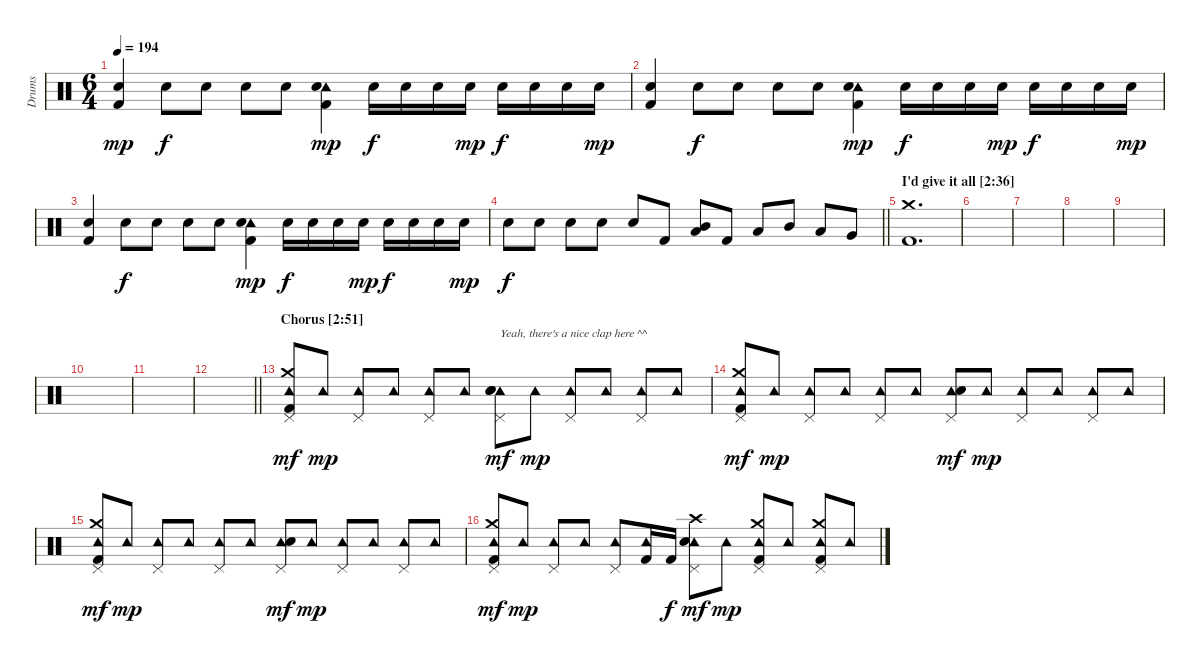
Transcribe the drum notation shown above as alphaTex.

\track ("Drums" "Drums") {instrument percussion}
\staff {score}
\articulation defaults
\ts (6 4)
\tempo 194
\clef neutral
\ks c
("Electric Snare (hit)" "Kick (hit) 2").4{dy mp} "Electric Snare (hit)".8{dy f} "Electric Snare (hit)".8 "Electric Snare (hit)".8 "Electric Snare (hit)".8 ("Tambourine (hit)" "Electric Snare (hit)" "Kick (hit) 2").4{dy mp} "Electric Snare (hit)".16{dy f} "Electric Snare (hit)".16 "Electric Snare (hit)".16 "Electric Snare (hit)".16{dy mp} "Electric Snare (hit)".16{dy f} "Electric Snare (hit)".16 "Electric Snare (hit)".16 "Electric Snare (hit)".16{dy mp} |
("Electric Snare (hit)" "Kick (hit) 2").4 "Electric Snare (hit)".8{dy f} "Electric Snare (hit)".8 "Electric Snare (hit)".8 "Electric Snare (hit)".8 ("Tambourine (hit)" "Electric Snare (hit)" "Kick (hit) 2").4{dy mp} "Electric Snare (hit)".16{dy f} "Electric Snare (hit)".16 "Electric Snare (hit)".16 "Electric Snare (hit)".16{dy mp} "Electric Snare (hit)".16{dy f} "Electric Snare (hit)".16 "Electric Snare (hit)".16 "Electric Snare (hit)".16{dy mp} |
("Electric Snare (hit)" "Kick (hit) 2").4 "Electric Snare (hit)".8{dy f} "Electric Snare (hit)".8 "Electric Snare (hit)".8 "Electric Snare (hit)".8 ("Tambourine (hit)" "Electric Snare (hit)" "Kick (hit) 2").4{dy mp} "Electric Snare (hit)".16{dy f} "Electric Snare (hit)".16 "Electric Snare (hit)".16 "Electric Snare (hit)".16{dy mp} "Electric Snare (hit)".16{dy f} "Electric Snare (hit)".16 "Electric Snare (hit)".16 "Electric Snare (hit)".16{dy mp} |
\barLineRight lightlight "Snare (hit) 2".8{dy f} "Snare (hit) 2".8 "Snare (hit) 2".8 "Snare (hit) 2".8 "Snare (hit) 2".8 "Kick (hit) 2".8
("Mid Tom (hit)" "Low Tom (hit)").8 "Kick (hit) 2".8 "Low Tom (hit)".8 "Mid Tom (hit)".8 "Low Tom (hit)".8 "Very Low Tom (hit)".8 |
\section ("" "I'd give it all [2:36]")
("Crash medium (hit)" "Kick (hit) 2").1{d} |
|
|
|
|
|
|
\barLineRight lightlight
|
\section ("" "Chorus [2:51]")
("Crash medium (hit)" "Tambourine (hit)" "Pedal Hi-Hat (hit)" "Kick (hit) 2").8{dy mf} "Tambourine (hit)".8{dy mp} ("Tambourine (hit)" "Pedal Hi-Hat (hit)").8 "Tambourine (hit)".8 ("Tambourine (hit)" "Pedal Hi-Hat (hit)").8 "Tambourine (hit)".8 ("Tambourine (hit)" "Pedal Hi-Hat (hit)" "Hand Clap (hit)" "Electric Snare (hit)").8{txt "Yeah, there's a nice clap here ^^" dy mf} "Tambourine (hit)".8{dy mp} ("Tambourine (hit)" "Pedal Hi-Hat (hit)").8 "Tambourine (hit)".8 ("Tambourine (hit)" "Pedal Hi-Hat (hit)").8 "Tambourine (hit)".8 |
("Crash medium (hit)" "Tambourine (hit)" "Pedal Hi-Hat (hit)" "Kick (hit) 2").8{dy mf} "Tambourine (hit)".8{dy mp} ("Tambourine (hit)" "Pedal Hi-Hat (hit)").8 "Tambourine (hit)".8 ("Tambourine (hit)" "Pedal Hi-Hat (hit)").8 "Tambourine (hit)".8 ("Tambourine (hit)" "Pedal Hi-Hat (hit)" "Electric Snare (hit)").8{dy mf} "Tambourine (hit)".8{dy mp} ("Tambourine (hit)" "Pedal Hi-Hat (hit)").8 "Tambourine (hit)".8 ("Tambourine (hit)" "Pedal Hi-Hat (hit)").8 "Tambourine (hit)".8 |
("Crash medium (hit)" "Tambourine (hit)" "Pedal Hi-Hat (hit)" "Kick (hit) 2").8{dy mf} "Tambourine (hit)".8{dy mp} ("Tambourine (hit)" "Pedal Hi-Hat (hit)").8 "Tambourine (hit)".8 ("Tambourine (hit)" "Pedal Hi-Hat (hit)").8 "Tambourine (hit)".8 ("Tambourine (hit)" "Pedal Hi-Hat (hit)" "Electric Snare (hit)").8{dy mf} "Tambourine (hit)".8{dy mp} ("Tambourine (hit)" "Pedal Hi-Hat (hit)").8 "Tambourine (hit)".8 ("Tambourine (hit)" "Pedal Hi-Hat (hit)").8 "Tambourine (hit)".8 |
("Crash medium (hit)" "Tambourine (hit)" "Pedal Hi-Hat (hit)" "Kick (hit) 2").8{dy mf} "Tambourine (hit)".8{dy mp} ("Tambourine (hit)" "Pedal Hi-Hat (hit)").8 "Tambourine (hit)".8 ("Tambourine (hit)" "Pedal Hi-Hat (hit)").8 ("Tambourine (hit)" "Kick (hit) 2").16 "Kick (hit) 2".16{dy f} ("Crash high (hit)" "Tambourine (hit)" "Pedal Hi-Hat (hit)" "Electric Snare (hit)").8{dy mf} "Tambourine (hit)".8{dy mp} ("Crash medium (hit)" "Tambourine (hit)" "Pedal Hi-Hat (hit)" "Kick (hit) 2").8 "Tambourine (hit)".8 ("Crash medium (hit)" "Tambourine (hit)" "Pedal Hi-Hat (hit)" "Kick (hit) 2").8 "Tambourine (hit)".8
